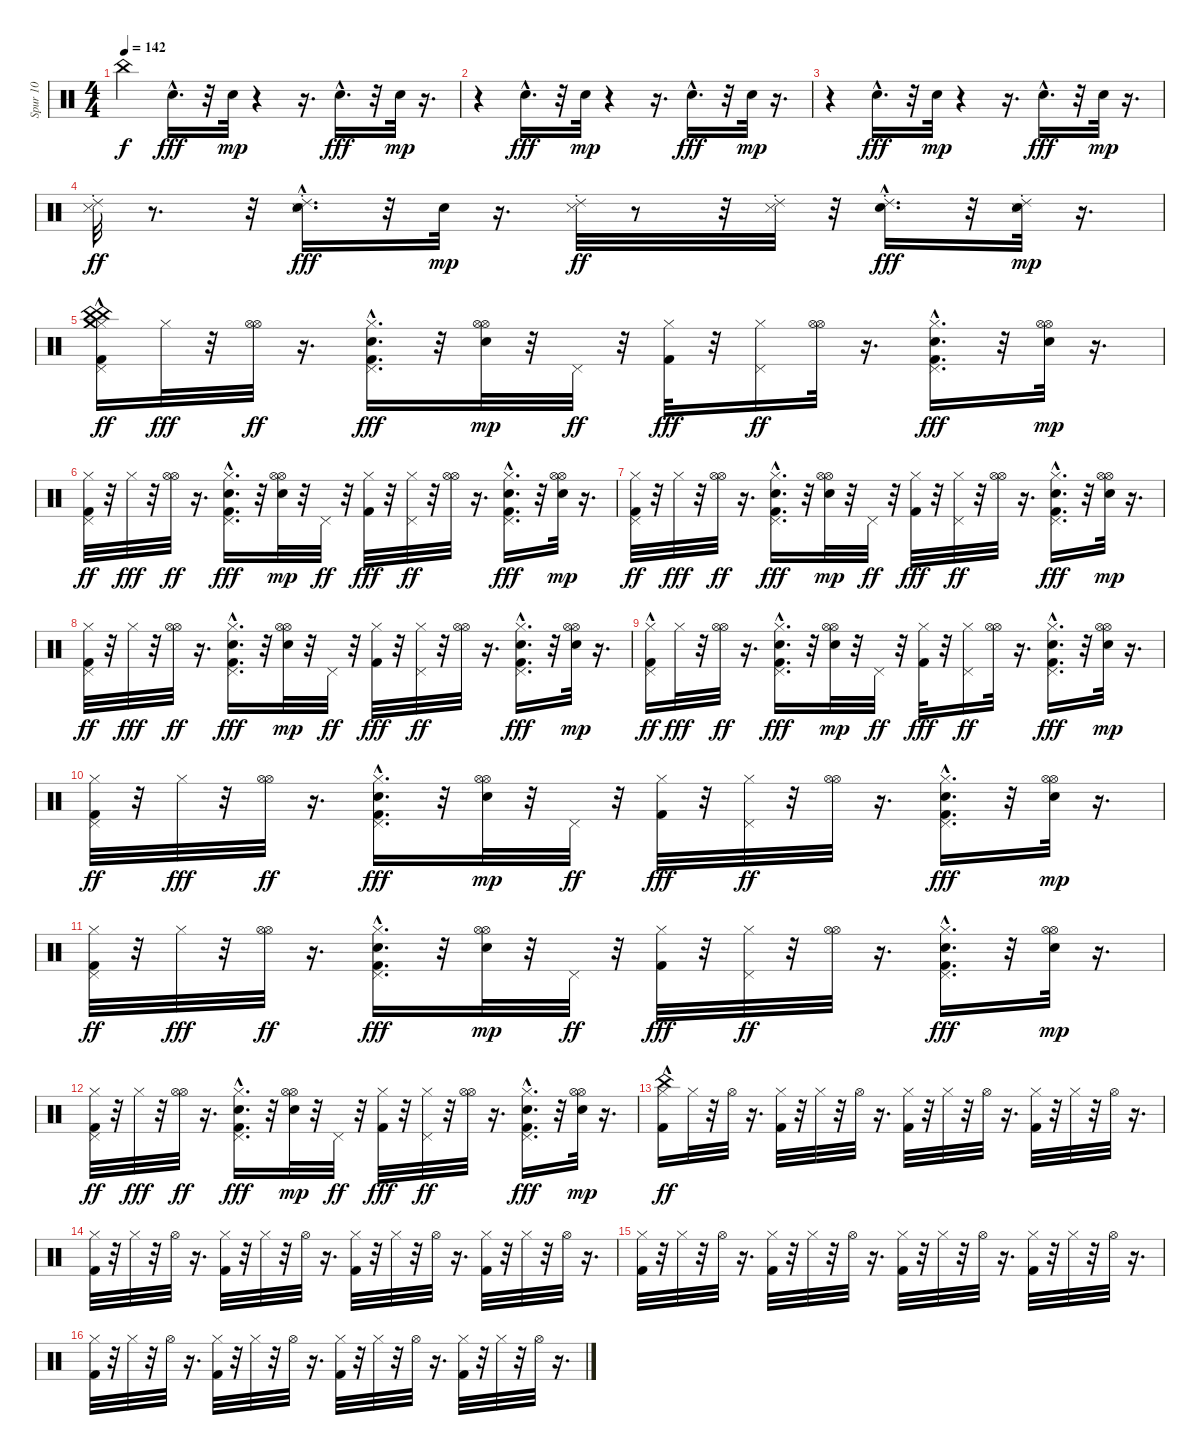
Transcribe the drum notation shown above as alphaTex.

\track ("Spur 10" "Spur 10") {instrument percussion}
\staff {score}
\articulation defaults
\ts (4 4)
\tempo 142
\clef neutral
\ks c "China (hit)".4{dy f} "Hand Clap (hit)"{hac}.16{d dy fff balance 16}
r.32 "Hand Clap (hit)".32{dy mp balance 0} r.4 r.16{d} "Hand Clap (hit)"{hac}.16{d dy fff balance 16} r.32 "Hand Clap (hit)".32{dy mp balance 0} r.16{d} |
r.4 "Hand Clap (hit)"{hac}.16{d dy fff balance 16} r.32 "Hand Clap (hit)".32{dy mp balance 0} r.4 r.16{d} "Hand Clap (hit)"{hac}.16{d dy fff balance 16} r.32 "Hand Clap (hit)".32{dy mp balance 0} r.16{d} |
r.4 "Hand Clap (hit)"{hac}.16{d dy fff balance 16} r.32 "Hand Clap (hit)".32{dy mp balance 0} r.4 r.16{d} "Hand Clap (hit)"{hac}.16{d dy fff balance 16} r.32 "Hand Clap (hit)".32{dy mp balance 0} r.16{d} |
("Metronome (hit)" "Ride (choke) 2").32{dy ff} r.8{d} r.32 ("Ride (choke) 2" "Metronome (hit)" "Hand Clap (hit)"{hac}).16{d dy fff balance 16} r.32 "Hand Clap (hit)".32{dy mp balance 0} r.16{d} ("Ride (choke) 2" "Metronome (hit)").32{dy ff} r.8 r.32 ("Metronome (hit)" "Ride (choke) 2").32 r.32 ("Ride (choke) 2" "Hand Clap (hit)"{hac}).16{d dy fff balance 16} r.32 ("Ride (choke) 2" "Metronome (hit)" "Hand Clap (hit)").32{dy mp balance 0} r.16{d} |
("Kick (hit) 2"{hac} "Hi-Hat (closed)" "Pedal Hi-Hat (hit)" "China (hit)" "Crash medium (hit)" "China (hit)").16{dy ff} "Hi-Hat (closed)".32{dy fff} r.32 ("Hi-Hat (open)" "Hi-Hat (open)").32{dy ff} r.16{d} ("Kick (hit) 2" "Hi-Hat (closed)" "Pedal Hi-Hat (hit)" "Hand Clap (hit)"{hac}).16{d dy fff balance 16} r.32 ("Hi-Hat (open)" "Hi-Hat (open)" "Hand Clap (hit)").32{dy mp balance 0} r.32 "Pedal Hi-Hat (hit)".32{dy ff} r.32 ("Kick (hit) 2" "Hi-Hat (closed)").32{dy fff} r.32 ("Hi-Hat (closed)" "Pedal Hi-Hat (hit)").16{dy ff} ("Hi-Hat (open)" "Hi-Hat (open)").32 r.16{d} ("Kick (hit) 2" "Hi-Hat (closed)" "Pedal Hi-Hat (hit)" "Hand Clap (hit)"{hac}).16{d dy fff balance 16} r.32 ("Hi-Hat (open)" "Hi-Hat (open)" "Hand Clap (hit)").32{dy mp balance 0} r.16{d} |
("Kick (hit) 2" "Hi-Hat (closed)" "Pedal Hi-Hat (hit)").32{dy ff} r.32 "Hi-Hat (closed)".32{dy fff} r.32 ("Hi-Hat (open)" "Hi-Hat (open)").32{dy ff} r.16{d} ("Kick (hit) 2" "Hi-Hat (closed)" "Pedal Hi-Hat (hit)" "Hand Clap (hit)"{hac}).16{d dy fff balance 16} r.32 ("Hi-Hat (open)" "Hi-Hat (open)" "Hand Clap (hit)").32{dy mp balance 0} r.32 "Pedal Hi-Hat (hit)".32{dy ff} r.32 ("Kick (hit) 2" "Hi-Hat (closed)").32{dy fff} r.32 ("Hi-Hat (closed)" "Pedal Hi-Hat (hit)").32{dy ff} r.32 ("Hi-Hat (open)" "Hi-Hat (open)").32 r.16{d} ("Kick (hit) 2" "Hi-Hat (closed)" "Pedal Hi-Hat (hit)" "Hand Clap (hit)"{hac}).16{d dy fff balance 16} r.32 ("Hi-Hat (open)" "Hi-Hat (open)" "Hand Clap (hit)").32{dy mp balance 0} r.16{d} |
("Kick (hit) 2" "Hi-Hat (closed)" "Pedal Hi-Hat (hit)").32{dy ff} r.32 "Hi-Hat (closed)".32{dy fff} r.32 ("Hi-Hat (open)" "Hi-Hat (open)").32{dy ff} r.16{d} ("Kick (hit) 2" "Hi-Hat (closed)" "Pedal Hi-Hat (hit)" "Hand Clap (hit)"{hac}).16{d dy fff balance 16} r.32 ("Hi-Hat (open)" "Hi-Hat (open)" "Hand Clap (hit)").32{dy mp balance 0} r.32 "Pedal Hi-Hat (hit)".32{dy ff} r.32 ("Kick (hit) 2" "Hi-Hat (closed)").32{dy fff} r.32 ("Hi-Hat (closed)" "Pedal Hi-Hat (hit)").32{dy ff} r.32 ("Hi-Hat (open)" "Hi-Hat (open)").32 r.16{d} ("Kick (hit) 2" "Hi-Hat (closed)" "Pedal Hi-Hat (hit)" "Hand Clap (hit)"{hac}).16{d dy fff balance 16} r.32 ("Hi-Hat (open)" "Hi-Hat (open)" "Hand Clap (hit)").32{dy mp balance 0} r.16{d} |
("Kick (hit) 2" "Hi-Hat (closed)" "Pedal Hi-Hat (hit)").32{dy ff} r.32 "Hi-Hat (closed)".32{dy fff} r.32 ("Hi-Hat (open)" "Hi-Hat (open)").32{dy ff} r.16{d} ("Kick (hit) 2" "Hi-Hat (closed)" "Pedal Hi-Hat (hit)" "Hand Clap (hit)"{hac}).16{d dy fff balance 16} r.32 ("Hi-Hat (open)" "Hi-Hat (open)" "Hand Clap (hit)").32{dy mp balance 0} r.32 "Pedal Hi-Hat (hit)".32{dy ff} r.32 ("Kick (hit) 2" "Hi-Hat (closed)").32{dy fff} r.32 ("Hi-Hat (closed)" "Pedal Hi-Hat (hit)").32{dy ff} r.32 ("Hi-Hat (open)" "Hi-Hat (open)").32 r.16{d} ("Kick (hit) 2" "Hi-Hat (closed)" "Pedal Hi-Hat (hit)" "Hand Clap (hit)"{hac}).16{d dy fff balance 16} r.32 ("Hi-Hat (open)" "Hi-Hat (open)" "Hand Clap (hit)").32{dy mp balance 0} r.16{d} |
("Kick (hit) 2"{hac} "Hi-Hat (closed)" "Pedal Hi-Hat (hit)").16{dy ff} "Hi-Hat (closed)".32{dy fff} r.32 ("Hi-Hat (open)" "Hi-Hat (open)").32{dy ff} r.16{d} ("Kick (hit) 2" "Hi-Hat (closed)" "Pedal Hi-Hat (hit)" "Hand Clap (hit)"{hac}).16{d dy fff balance 16} r.32 ("Hi-Hat (open)" "Hi-Hat (open)" "Hand Clap (hit)").32{dy mp balance 0} r.32 "Pedal Hi-Hat (hit)".32{dy ff} r.32 ("Kick (hit) 2" "Hi-Hat (closed)").32{dy fff} r.32 ("Hi-Hat (closed)" "Pedal Hi-Hat (hit)").16{dy ff} ("Hi-Hat (open)" "Hi-Hat (open)").32 r.16{d} ("Kick (hit) 2" "Hi-Hat (closed)" "Pedal Hi-Hat (hit)" "Hand Clap (hit)"{hac}).16{d dy fff balance 16} r.32 ("Hi-Hat (open)" "Hi-Hat (open)" "Hand Clap (hit)").32{dy mp balance 0} r.16{d} |
("Kick (hit) 2" "Hi-Hat (closed)" "Pedal Hi-Hat (hit)").32{dy ff} r.32 "Hi-Hat (closed)".32{dy fff} r.32 ("Hi-Hat (open)" "Hi-Hat (open)").32{dy ff} r.16{d} ("Kick (hit) 2" "Hi-Hat (closed)" "Pedal Hi-Hat (hit)" "Hand Clap (hit)"{hac}).16{d dy fff balance 16} r.32 ("Hi-Hat (open)" "Hi-Hat (open)" "Hand Clap (hit)").32{dy mp balance 0} r.32 "Pedal Hi-Hat (hit)".32{dy ff} r.32 ("Kick (hit) 2" "Hi-Hat (closed)").32{dy fff} r.32 ("Hi-Hat (closed)" "Pedal Hi-Hat (hit)").32{dy ff} r.32 ("Hi-Hat (open)" "Hi-Hat (open)").32 r.16{d} ("Kick (hit) 2" "Hi-Hat (closed)" "Pedal Hi-Hat (hit)" "Hand Clap (hit)"{hac}).16{d dy fff balance 16} r.32 ("Hi-Hat (open)" "Hi-Hat (open)" "Hand Clap (hit)").32{dy mp balance 0} r.16{d} |
("Kick (hit) 2" "Hi-Hat (closed)" "Pedal Hi-Hat (hit)").32{dy ff} r.32 "Hi-Hat (closed)".32{dy fff} r.32 ("Hi-Hat (open)" "Hi-Hat (open)").32{dy ff} r.16{d} ("Kick (hit) 2" "Hi-Hat (closed)" "Pedal Hi-Hat (hit)" "Hand Clap (hit)"{hac}).16{d dy fff balance 16} r.32 ("Hi-Hat (open)" "Hi-Hat (open)" "Hand Clap (hit)").32{dy mp balance 0} r.32 "Pedal Hi-Hat (hit)".32{dy ff} r.32 ("Kick (hit) 2" "Hi-Hat (closed)").32{dy fff} r.32 ("Hi-Hat (closed)" "Pedal Hi-Hat (hit)").32{dy ff} r.32 ("Hi-Hat (open)" "Hi-Hat (open)").32 r.16{d} ("Kick (hit) 2" "Hi-Hat (closed)" "Pedal Hi-Hat (hit)" "Hand Clap (hit)"{hac}).16{d dy fff balance 16} r.32 ("Hi-Hat (open)" "Hi-Hat (open)" "Hand Clap (hit)").32{dy mp balance 0} r.16{d} |
("Kick (hit) 2" "Hi-Hat (closed)" "Pedal Hi-Hat (hit)").32{dy ff} r.32 "Hi-Hat (closed)".32{dy fff} r.32 ("Hi-Hat (open)" "Hi-Hat (open)").32{dy ff} r.16{d} ("Kick (hit) 2" "Hi-Hat (closed)" "Pedal Hi-Hat (hit)" "Hand Clap (hit)"{hac}).16{d dy fff balance 16} r.32 ("Hi-Hat (open)" "Hi-Hat (open)" "Hand Clap (hit)").32{dy mp balance 0} r.32 "Pedal Hi-Hat (hit)".32{dy ff} r.32 ("Kick (hit) 2" "Hi-Hat (closed)").32{dy fff} r.32 ("Hi-Hat (closed)" "Pedal Hi-Hat (hit)").32{dy ff} r.32 ("Hi-Hat (open)" "Hi-Hat (open)").32 r.16{d} ("Kick (hit) 2" "Hi-Hat (closed)" "Pedal Hi-Hat (hit)" "Hand Clap (hit)"{hac}).16{d dy fff balance 16} r.32 ("Hi-Hat (open)" "Hi-Hat (open)" "Hand Clap (hit)").32{dy mp balance 0} r.16{d} |
("Kick (hit) 2"{hac} "Hi-Hat (closed)" "China (hit)").16{dy ff} "Hi-Hat (closed)".32 r.32 "Hi-Hat (open)".32 r.16{d} ("Kick (hit) 2" "Hi-Hat (closed)").32 r.32 "Hi-Hat (closed)".32 r.32 "Hi-Hat (open)".32 r.16{d} ("Kick (hit) 2" "Hi-Hat (closed)").32 r.32 "Hi-Hat (closed)".32 r.32 "Hi-Hat (open)".32 r.16{d} ("Kick (hit) 2" "Hi-Hat (closed)").32 r.32 "Hi-Hat (closed)".32 r.32 "Hi-Hat (open)".32 r.16{d} |
("Kick (hit) 2" "Hi-Hat (closed)").32 r.32 "Hi-Hat (closed)".32 r.32 "Hi-Hat (open)".32 r.16{d} ("Kick (hit) 2" "Hi-Hat (closed)").32 r.32 "Hi-Hat (closed)".32 r.32 "Hi-Hat (open)".32 r.16{d} ("Kick (hit) 2" "Hi-Hat (closed)").32 r.32 "Hi-Hat (closed)".32 r.32 "Hi-Hat (open)".32 r.16{d} ("Kick (hit) 2" "Hi-Hat (closed)").32 r.32 "Hi-Hat (closed)".32 r.32 "Hi-Hat (open)".32 r.16{d} |
("Kick (hit) 2" "Hi-Hat (closed)").32 r.32 "Hi-Hat (closed)".32 r.32 "Hi-Hat (open)".32 r.16{d} ("Kick (hit) 2" "Hi-Hat (closed)").32 r.32 "Hi-Hat (closed)".32 r.32 "Hi-Hat (open)".32 r.16{d} ("Kick (hit) 2" "Hi-Hat (closed)").32 r.32 "Hi-Hat (closed)".32 r.32 "Hi-Hat (open)".32 r.16{d} ("Kick (hit) 2" "Hi-Hat (closed)").32 r.32 "Hi-Hat (closed)".32 r.32 "Hi-Hat (open)".32 r.16{d} |
("Kick (hit) 2" "Hi-Hat (closed)").32 r.32 "Hi-Hat (closed)".32 r.32 "Hi-Hat (open)".32 r.16{d} ("Kick (hit) 2" "Hi-Hat (closed)").32 r.32 "Hi-Hat (closed)".32 r.32 "Hi-Hat (open)".32 r.16{d} ("Kick (hit) 2" "Hi-Hat (closed)").32 r.32 "Hi-Hat (closed)".32 r.32 "Hi-Hat (open)".32 r.16{d} ("Kick (hit) 2" "Hi-Hat (closed)").32 r.32 "Hi-Hat (closed)".32 r.32 "Hi-Hat (open)".32 r.16{d}
